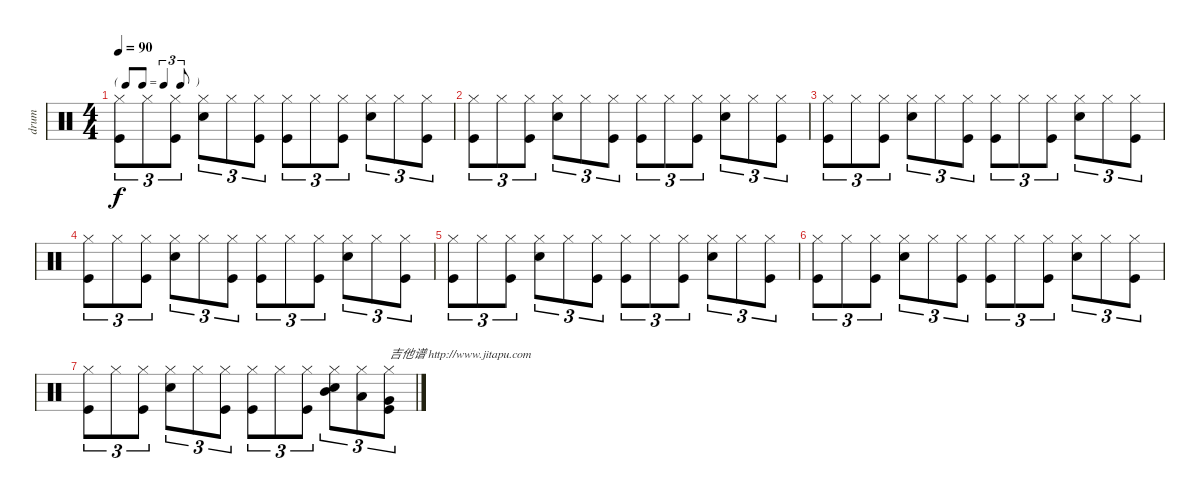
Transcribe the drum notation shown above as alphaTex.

\track ("drum" "drum") {instrument percussion}
\staff {score}
\articulation defaults
\ts (4 4)
\tf triplet8th
\tempo 90
\clef neutral
\ks c
("Hi-Hat (closed)" "Kick (hit)").8{tu (3 2) dy f} "Hi-Hat (closed)".8{tu (3 2)} ("Hi-Hat (closed)" "Kick (hit)").8{tu (3 2)} ("Hi-Hat (closed)" "Snare (hit) 2").8{tu (3 2)} "Hi-Hat (closed)".8{tu (3 2)} ("Hi-Hat (closed)" "Kick (hit)").8{tu (3 2)} ("Hi-Hat (closed)" "Kick (hit)").8{tu (3 2)} "Hi-Hat (closed)".8{tu (3 2)} ("Hi-Hat (closed)" "Kick (hit)").8{tu (3 2)} ("Hi-Hat (closed)" "Snare (hit) 2").8{tu (3 2)} "Hi-Hat (closed)".8{tu (3 2)} ("Hi-Hat (closed)" "Kick (hit)").8{tu (3 2)} |
("Hi-Hat (closed)" "Kick (hit)").8{tu (3 2)} "Hi-Hat (closed)".8{tu (3 2)} ("Hi-Hat (closed)" "Kick (hit)").8{tu (3 2)} ("Hi-Hat (closed)" "Snare (hit) 2").8{tu (3 2)} "Hi-Hat (closed)".8{tu (3 2)} ("Hi-Hat (closed)" "Kick (hit)").8{tu (3 2)} ("Hi-Hat (closed)" "Kick (hit)").8{tu (3 2)} "Hi-Hat (closed)".8{tu (3 2)} ("Hi-Hat (closed)" "Kick (hit)").8{tu (3 2)} ("Hi-Hat (closed)" "Snare (hit) 2").8{tu (3 2)} "Hi-Hat (closed)".8{tu (3 2)} ("Hi-Hat (closed)" "Kick (hit)").8{tu (3 2)} |
("Hi-Hat (closed)" "Kick (hit)").8{tu (3 2)} "Hi-Hat (closed)".8{tu (3 2)} ("Hi-Hat (closed)" "Kick (hit)").8{tu (3 2)} ("Hi-Hat (closed)" "Snare (hit) 2").8{tu (3 2)} "Hi-Hat (closed)".8{tu (3 2)} ("Hi-Hat (closed)" "Kick (hit)").8{tu (3 2)} ("Hi-Hat (closed)" "Kick (hit)").8{tu (3 2)} "Hi-Hat (closed)".8{tu (3 2)} ("Hi-Hat (closed)" "Kick (hit)").8{tu (3 2)} ("Hi-Hat (closed)" "Snare (hit) 2").8{tu (3 2)} "Hi-Hat (closed)".8{tu (3 2)} ("Hi-Hat (closed)" "Kick (hit)").8{tu (3 2)} |
("Hi-Hat (closed)" "Kick (hit)").8{tu (3 2)} "Hi-Hat (closed)".8{tu (3 2)} ("Hi-Hat (closed)" "Kick (hit)").8{tu (3 2)} ("Hi-Hat (closed)" "Snare (hit) 2").8{tu (3 2)} "Hi-Hat (closed)".8{tu (3 2)} ("Hi-Hat (closed)" "Kick (hit)").8{tu (3 2)} ("Hi-Hat (closed)" "Kick (hit)").8{tu (3 2)} "Hi-Hat (closed)".8{tu (3 2)} ("Hi-Hat (closed)" "Kick (hit)").8{tu (3 2)} ("Hi-Hat (closed)" "Snare (hit) 2").8{tu (3 2)} "Hi-Hat (closed)".8{tu (3 2)} ("Hi-Hat (closed)" "Kick (hit)").8{tu (3 2)} |
("Hi-Hat (closed)" "Kick (hit)").8{tu (3 2)} "Hi-Hat (closed)".8{tu (3 2)} ("Hi-Hat (closed)" "Kick (hit)").8{tu (3 2)} ("Hi-Hat (closed)" "Snare (hit) 2").8{tu (3 2)} "Hi-Hat (closed)".8{tu (3 2)} ("Hi-Hat (closed)" "Kick (hit)").8{tu (3 2)} ("Hi-Hat (closed)" "Kick (hit)").8{tu (3 2)} "Hi-Hat (closed)".8{tu (3 2)} ("Hi-Hat (closed)" "Kick (hit)").8{tu (3 2)} ("Hi-Hat (closed)" "Snare (hit) 2").8{tu (3 2)} "Hi-Hat (closed)".8{tu (3 2)} ("Hi-Hat (closed)" "Kick (hit)").8{tu (3 2)} |
("Hi-Hat (closed)" "Kick (hit)").8{tu (3 2)} "Hi-Hat (closed)".8{tu (3 2)} ("Hi-Hat (closed)" "Kick (hit)").8{tu (3 2)} ("Hi-Hat (closed)" "Snare (hit) 2").8{tu (3 2)} "Hi-Hat (closed)".8{tu (3 2)} ("Hi-Hat (closed)" "Kick (hit)").8{tu (3 2)} ("Hi-Hat (closed)" "Kick (hit)").8{tu (3 2)} "Hi-Hat (closed)".8{tu (3 2)} ("Hi-Hat (closed)" "Kick (hit)").8{tu (3 2)} ("Hi-Hat (closed)" "Snare (hit) 2").8{tu (3 2)} "Hi-Hat (closed)".8{tu (3 2)} ("Hi-Hat (closed)" "Kick (hit)").8{tu (3 2)} |
("Hi-Hat (closed)" "Kick (hit)").8{tu (3 2)} "Hi-Hat (closed)".8{tu (3 2)} ("Hi-Hat (closed)" "Kick (hit)").8{tu (3 2)} ("Hi-Hat (closed)" "Snare (hit) 2").8{tu (3 2)} "Hi-Hat (closed)".8{tu (3 2)} ("Hi-Hat (closed)" "Kick (hit)").8{tu (3 2)} ("Hi-Hat (closed)" "Kick (hit)").8{tu (3 2)} "Hi-Hat (closed)".8{tu (3 2)} ("Hi-Hat (closed)" "Kick (hit)").8{tu (3 2)} ("Hi-Hat (closed)" "Mid Tom (hit)" "Snare (hit) 2").8{tu (3 2)} ("Hi-Hat (closed)" "Low Tom (hit)").8{tu (3 2)} ("Hi-Hat (closed)" "Very Low Tom (hit)" "Kick (hit)").8{tu (3 2) txt "吉他谱 http://www.jitapu.com"}
